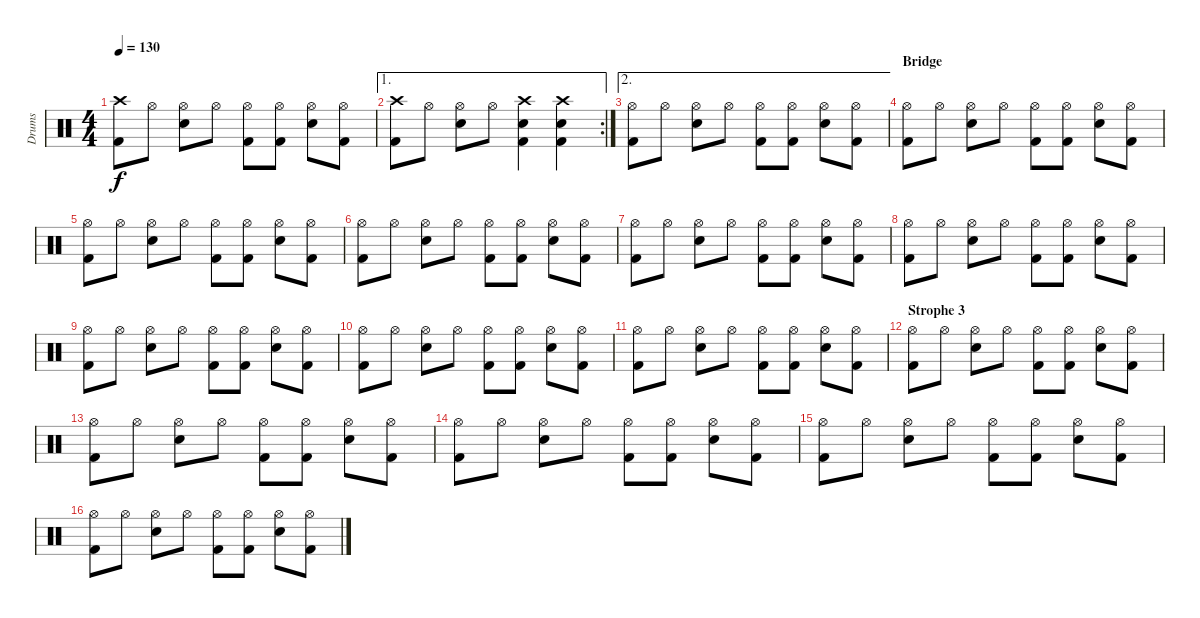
\track ("Drums" "Drums") {instrument percussion}
\staff {score}
\articulation defaults
\ts (4 4)
\tempo 130
\clef neutral
\ks c
("Crash high (hit)" "Kick (hit) 2").8{dy f} "Hi-Hat (open)".8 ("Hi-Hat (open)" "Electric Snare (hit)").8 "Hi-Hat (open)".8 ("Hi-Hat (open)" "Kick (hit) 2").8 ("Hi-Hat (open)" "Kick (hit) 2").8 ("Hi-Hat (open)" "Electric Snare (hit)").8 ("Hi-Hat (open)" "Kick (hit) 2").8 |
\ae 1
\rc 2
("Crash high (hit)" "Kick (hit) 2").8 "Hi-Hat (open)".8 ("Hi-Hat (open)" "Electric Snare (hit)").8 "Hi-Hat (open)".8 ("Crash high (hit)" "Electric Snare (hit)" "Kick (hit) 2").4 ("Crash high (hit)" "Electric Snare (hit)" "Kick (hit) 2").4 |
\ae 2
("Hi-Hat (open)" "Kick (hit) 2").8 "Hi-Hat (open)".8 ("Hi-Hat (open)" "Electric Snare (hit)").8 "Hi-Hat (open)".8 ("Hi-Hat (open)" "Kick (hit) 2").8 ("Hi-Hat (open)" "Kick (hit) 2").8 ("Hi-Hat (open)" "Electric Snare (hit)").8 ("Hi-Hat (open)" "Kick (hit) 2").8 |
\section ("" "Bridge")
("Hi-Hat (open)" "Kick (hit) 2").8 "Hi-Hat (open)".8 ("Hi-Hat (open)" "Electric Snare (hit)").8 "Hi-Hat (open)".8 ("Hi-Hat (open)" "Kick (hit) 2").8 ("Hi-Hat (open)" "Kick (hit) 2").8 ("Hi-Hat (open)" "Electric Snare (hit)").8 ("Hi-Hat (open)" "Kick (hit) 2").8 |
("Hi-Hat (open)" "Kick (hit) 2").8 "Hi-Hat (open)".8 ("Hi-Hat (open)" "Electric Snare (hit)").8 "Hi-Hat (open)".8 ("Hi-Hat (open)" "Kick (hit) 2").8 ("Hi-Hat (open)" "Kick (hit) 2").8 ("Hi-Hat (open)" "Electric Snare (hit)").8 ("Hi-Hat (open)" "Kick (hit) 2").8 |
("Hi-Hat (open)" "Kick (hit) 2").8 "Hi-Hat (open)".8 ("Hi-Hat (open)" "Electric Snare (hit)").8 "Hi-Hat (open)".8 ("Hi-Hat (open)" "Kick (hit) 2").8 ("Hi-Hat (open)" "Kick (hit) 2").8 ("Hi-Hat (open)" "Electric Snare (hit)").8 ("Hi-Hat (open)" "Kick (hit) 2").8 |
("Hi-Hat (open)" "Kick (hit) 2").8 "Hi-Hat (open)".8 ("Hi-Hat (open)" "Electric Snare (hit)").8 "Hi-Hat (open)".8 ("Hi-Hat (open)" "Kick (hit) 2").8 ("Hi-Hat (open)" "Kick (hit) 2").8 ("Hi-Hat (open)" "Electric Snare (hit)").8 ("Hi-Hat (open)" "Kick (hit) 2").8 |
("Hi-Hat (open)" "Kick (hit) 2").8 "Hi-Hat (open)".8 ("Hi-Hat (open)" "Electric Snare (hit)").8 "Hi-Hat (open)".8 ("Hi-Hat (open)" "Kick (hit) 2").8 ("Hi-Hat (open)" "Kick (hit) 2").8 ("Hi-Hat (open)" "Electric Snare (hit)").8 ("Hi-Hat (open)" "Kick (hit) 2").8 |
("Hi-Hat (open)" "Kick (hit) 2").8 "Hi-Hat (open)".8 ("Hi-Hat (open)" "Electric Snare (hit)").8 "Hi-Hat (open)".8 ("Hi-Hat (open)" "Kick (hit) 2").8 ("Hi-Hat (open)" "Kick (hit) 2").8 ("Hi-Hat (open)" "Electric Snare (hit)").8 ("Hi-Hat (open)" "Kick (hit) 2").8 |
("Hi-Hat (open)" "Kick (hit) 2").8 "Hi-Hat (open)".8 ("Hi-Hat (open)" "Electric Snare (hit)").8 "Hi-Hat (open)".8 ("Hi-Hat (open)" "Kick (hit) 2").8 ("Hi-Hat (open)" "Kick (hit) 2").8 ("Hi-Hat (open)" "Electric Snare (hit)").8 ("Hi-Hat (open)" "Kick (hit) 2").8 |
("Hi-Hat (open)" "Kick (hit) 2").8 "Hi-Hat (open)".8 ("Hi-Hat (open)" "Electric Snare (hit)").8 "Hi-Hat (open)".8 ("Hi-Hat (open)" "Kick (hit) 2").8 ("Hi-Hat (open)" "Kick (hit) 2").8 ("Hi-Hat (open)" "Electric Snare (hit)").8 ("Hi-Hat (open)" "Kick (hit) 2").8 |
\section ("" "Strophe 3")
("Hi-Hat (open)" "Kick (hit) 2").8 "Hi-Hat (open)".8 ("Hi-Hat (open)" "Electric Snare (hit)").8 "Hi-Hat (open)".8 ("Hi-Hat (open)" "Kick (hit) 2").8 ("Hi-Hat (open)" "Kick (hit) 2").8 ("Hi-Hat (open)" "Electric Snare (hit)").8 ("Hi-Hat (open)" "Kick (hit) 2").8 |
("Hi-Hat (open)" "Kick (hit) 2").8 "Hi-Hat (open)".8 ("Hi-Hat (open)" "Electric Snare (hit)").8 "Hi-Hat (open)".8 ("Hi-Hat (open)" "Kick (hit) 2").8 ("Hi-Hat (open)" "Kick (hit) 2").8 ("Hi-Hat (open)" "Electric Snare (hit)").8 ("Hi-Hat (open)" "Kick (hit) 2").8 |
("Hi-Hat (open)" "Kick (hit) 2").8 "Hi-Hat (open)".8 ("Hi-Hat (open)" "Electric Snare (hit)").8 "Hi-Hat (open)".8 ("Hi-Hat (open)" "Kick (hit) 2").8 ("Hi-Hat (open)" "Kick (hit) 2").8 ("Hi-Hat (open)" "Electric Snare (hit)").8 ("Hi-Hat (open)" "Kick (hit) 2").8 |
("Hi-Hat (open)" "Kick (hit) 2").8 "Hi-Hat (open)".8 ("Hi-Hat (open)" "Electric Snare (hit)").8 "Hi-Hat (open)".8 ("Hi-Hat (open)" "Kick (hit) 2").8 ("Hi-Hat (open)" "Kick (hit) 2").8 ("Hi-Hat (open)" "Electric Snare (hit)").8 ("Hi-Hat (open)" "Kick (hit) 2").8 |
("Hi-Hat (open)" "Kick (hit) 2").8 "Hi-Hat (open)".8 ("Hi-Hat (open)" "Electric Snare (hit)").8 "Hi-Hat (open)".8 ("Hi-Hat (open)" "Kick (hit) 2").8 ("Hi-Hat (open)" "Kick (hit) 2").8 ("Hi-Hat (open)" "Electric Snare (hit)").8 ("Hi-Hat (open)" "Kick (hit) 2").8
